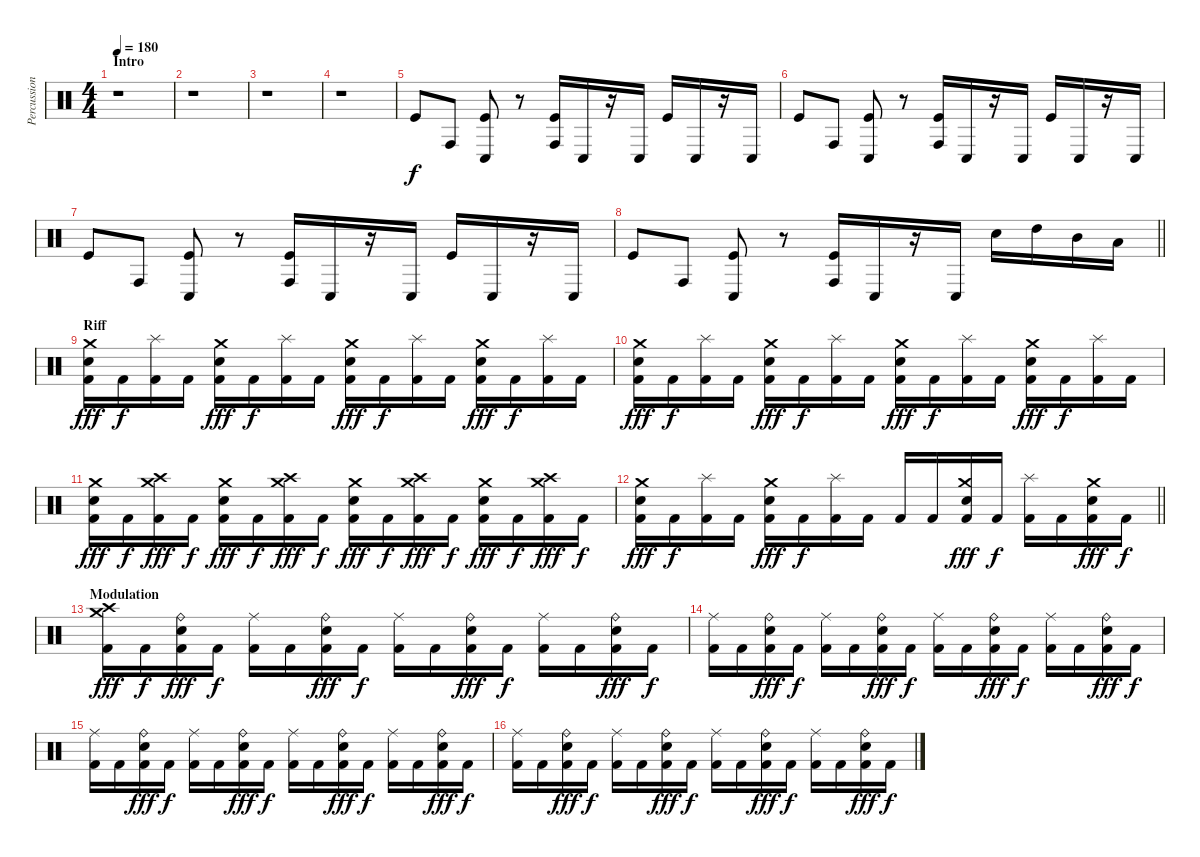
\track ("Percussion" "Percussion") {instrument percussion}
\staff {score}
\articulation defaults
\ts (4 4)
\section ("" "Intro")
\tempo 180
\clef neutral
\ks c
r.1{dy f} |
r.1 |
r.1 |
r.1 |
"Kick (hit)".8 "Conga high (hit)".8 ("Conga low (hit)" "Kick (hit)").8 r.8 ("Conga high (hit)" "Kick (hit)").16 "Conga low (hit)".16 r.16 "Conga low (hit)".16 "Kick (hit)".16 "Conga low (hit)".16 r.16 "Conga low (hit)".16 |
"Kick (hit)".8 "Conga high (hit)".8 ("Conga low (hit)" "Kick (hit)").8 r.8 ("Conga high (hit)" "Kick (hit)").16 "Conga low (hit)".16 r.16 "Conga low (hit)".16 "Kick (hit)".16 "Conga low (hit)".16 r.16 "Conga low (hit)".16 |
"Kick (hit)".8 "Conga high (hit)".8 ("Conga low (hit)" "Kick (hit)").8 r.8 ("Conga high (hit)" "Kick (hit)").16 "Conga low (hit)".16 r.16 "Conga low (hit)".16 "Kick (hit)".16 "Conga low (hit)".16 r.16 "Conga low (hit)".16 |
\barLineRight lightlight "Kick (hit)".8 "Conga high (hit)".8
("Conga low (hit)" "Kick (hit)").8 r.8 ("Conga high (hit)" "Kick (hit)").16 "Conga low (hit)".16 r.16 "Conga low (hit)".16 "Electric Snare (hit)".16 "High Tom (hit)".16 "Mid Tom (hit)".16 "Low Tom (hit)".16 |
\section ("" "Riff")
("Crash medium (hit)" "Electric Snare (hit)" "Kick (hit) 2").16{dy fff} "Kick (hit) 2".16{dy f} ("Splash (hit)" "Kick (hit) 2").16 "Kick (hit) 2".16 ("Crash medium (hit)" "Electric Snare (hit)" "Kick (hit) 2").16{dy fff} "Kick (hit) 2".16{dy f} ("Splash (hit)" "Kick (hit) 2").16 "Kick (hit) 2".16 ("Crash medium (hit)" "Electric Snare (hit)" "Kick (hit) 2").16{dy fff} "Kick (hit) 2".16{dy f} ("Splash (hit)" "Kick (hit) 2").16 "Kick (hit) 2".16 ("Crash medium (hit)" "Electric Snare (hit)" "Kick (hit) 2").16{dy fff} "Kick (hit) 2".16{dy f} ("Splash (hit)" "Kick (hit) 2").16 "Kick (hit) 2".16 |
("Crash medium (hit)" "Electric Snare (hit)" "Kick (hit) 2").16{dy fff} "Kick (hit) 2".16{dy f} ("Splash (hit)" "Kick (hit) 2").16 "Kick (hit) 2".16 ("Crash medium (hit)" "Electric Snare (hit)" "Kick (hit) 2").16{dy fff} "Kick (hit) 2".16{dy f} ("Splash (hit)" "Kick (hit) 2").16 "Kick (hit) 2".16 ("Crash medium (hit)" "Electric Snare (hit)" "Kick (hit) 2").16{dy fff} "Kick (hit) 2".16{dy f} ("Splash (hit)" "Kick (hit) 2").16 "Kick (hit) 2".16 ("Crash medium (hit)" "Electric Snare (hit)" "Kick (hit) 2").16{dy fff} "Kick (hit) 2".16{dy f} ("Splash (hit)" "Kick (hit) 2").16 "Kick (hit) 2".16 |
("Crash medium (hit)" "Electric Snare (hit)" "Kick (hit) 2").16{dy fff} "Kick (hit) 2".16{dy f} ("Crash high (hit)" "Crash medium (hit)" "Kick (hit) 2").16{dy fff} "Kick (hit) 2".16{dy f} ("Crash medium (hit)" "Electric Snare (hit)" "Kick (hit) 2").16{dy fff} "Kick (hit) 2".16{dy f} ("Crash high (hit)" "Crash medium (hit)" "Kick (hit) 2").16{dy fff} "Kick (hit) 2".16{dy f} ("Crash medium (hit)" "Electric Snare (hit)" "Kick (hit) 2").16{dy fff} "Kick (hit) 2".16{dy f} ("Crash high (hit)" "Crash medium (hit)" "Kick (hit) 2").16{dy fff} "Kick (hit) 2".16{dy f} ("Crash medium (hit)" "Electric Snare (hit)" "Kick (hit) 2").16{dy fff} "Kick (hit) 2".16{dy f} ("Crash high (hit)" "Crash medium (hit)" "Kick (hit) 2").16{dy fff} "Kick (hit) 2".16{dy f} |
\barLineRight lightlight
("Crash medium (hit)" "Electric Snare (hit)" "Kick (hit) 2").16{dy fff} "Kick (hit) 2".16{dy f} ("Splash (hit)" "Kick (hit) 2").16 "Kick (hit) 2".16 ("Crash medium (hit)" "Electric Snare (hit)" "Kick (hit) 2").16{dy fff} "Kick (hit) 2".16{dy f} ("Splash (hit)" "Kick (hit) 2").16 "Kick (hit) 2".16 "Kick (hit) 2".16 "Kick (hit) 2".16 ("Crash medium (hit)" "Electric Snare (hit)" "Kick (hit) 2").16{dy fff} "Kick (hit) 2".16{dy f} ("Splash (hit)" "Kick (hit) 2").16 "Kick (hit) 2".16 ("Crash medium (hit)" "Electric Snare (hit)" "Kick (hit) 2").16{dy fff} "Kick (hit) 2".16{dy f} |
\section ("" "Modulation")
("Crash medium (hit)" "Crash high (hit)" "Kick (hit) 2").16{dy fff} "Kick (hit) 2".16{dy f} ("Ride (bell)" "Electric Snare (hit)" "Kick (hit) 2").16{dy fff} "Kick (hit) 2".16{dy f} ("Ride (middle)" "Kick (hit) 2").16 "Kick (hit) 2".16 ("Ride (bell)" "Electric Snare (hit)" "Kick (hit) 2").16{dy fff} "Kick (hit) 2".16{dy f} ("Ride (middle)" "Kick (hit) 2").16 "Kick (hit) 2".16 ("Ride (bell)" "Electric Snare (hit)" "Kick (hit) 2").16{dy fff} "Kick (hit) 2".16{dy f} ("Ride (middle)" "Kick (hit) 2").16 "Kick (hit) 2".16 ("Ride (bell)" "Electric Snare (hit)" "Kick (hit) 2").16{dy fff} "Kick (hit) 2".16{dy f} |
("Ride (middle)" "Kick (hit) 2").16 "Kick (hit) 2".16 ("Ride (bell)" "Electric Snare (hit)" "Kick (hit) 2").16{dy fff} "Kick (hit) 2".16{dy f} ("Ride (middle)" "Kick (hit) 2").16 "Kick (hit) 2".16 ("Ride (bell)" "Electric Snare (hit)" "Kick (hit) 2").16{dy fff} "Kick (hit) 2".16{dy f} ("Ride (middle)" "Kick (hit) 2").16 "Kick (hit) 2".16 ("Ride (bell)" "Electric Snare (hit)" "Kick (hit) 2").16{dy fff} "Kick (hit) 2".16{dy f} ("Ride (middle)" "Kick (hit) 2").16 "Kick (hit) 2".16 ("Ride (bell)" "Electric Snare (hit)" "Kick (hit) 2").16{dy fff} "Kick (hit) 2".16{dy f} |
("Ride (middle)" "Kick (hit) 2").16 "Kick (hit) 2".16 ("Ride (bell)" "Electric Snare (hit)" "Kick (hit) 2").16{dy fff} "Kick (hit) 2".16{dy f} ("Ride (middle)" "Kick (hit) 2").16 "Kick (hit) 2".16 ("Ride (bell)" "Electric Snare (hit)" "Kick (hit) 2").16{dy fff} "Kick (hit) 2".16{dy f} ("Ride (middle)" "Kick (hit) 2").16 "Kick (hit) 2".16 ("Ride (bell)" "Electric Snare (hit)" "Kick (hit) 2").16{dy fff} "Kick (hit) 2".16{dy f} ("Ride (middle)" "Kick (hit) 2").16 "Kick (hit) 2".16 ("Ride (bell)" "Electric Snare (hit)" "Kick (hit) 2").16{dy fff} "Kick (hit) 2".16{dy f} |
("Ride (middle)" "Kick (hit) 2").16 "Kick (hit) 2".16 ("Ride (bell)" "Electric Snare (hit)" "Kick (hit) 2").16{dy fff} "Kick (hit) 2".16{dy f} ("Ride (middle)" "Kick (hit) 2").16 "Kick (hit) 2".16 ("Ride (bell)" "Electric Snare (hit)" "Kick (hit) 2").16{dy fff} "Kick (hit) 2".16{dy f} ("Ride (middle)" "Kick (hit) 2").16 "Kick (hit) 2".16 ("Ride (bell)" "Electric Snare (hit)" "Kick (hit) 2").16{dy fff} "Kick (hit) 2".16{dy f} ("Ride (middle)" "Kick (hit) 2").16 "Kick (hit) 2".16 ("Ride (bell)" "Electric Snare (hit)" "Kick (hit) 2").16{dy fff} "Kick (hit) 2".16{dy f}
